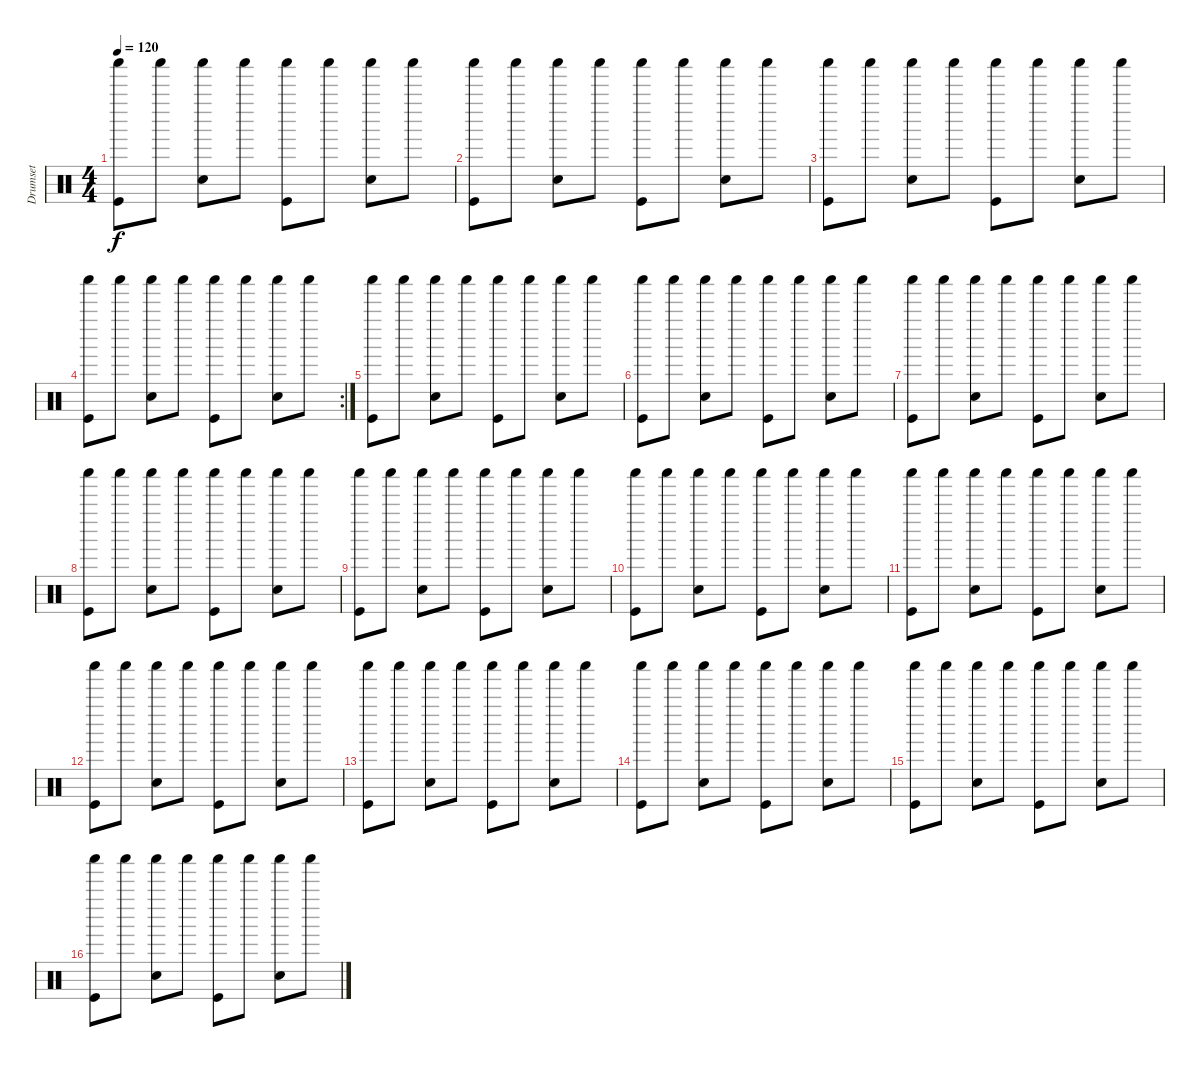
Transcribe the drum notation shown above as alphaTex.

\track ("Drumset" "Drumset") {instrument percussion}
\staff {score}
\articulation defaults
\ts (4 4)
\tempo 120
\clef neutral
\ks c
("Shaker (hit)" "Kick (hit)").8{dy f} "Shaker (hit)".8 ("Shaker (hit)" "Snare (hit) 2").8 "Shaker (hit)".8 ("Shaker (hit)" "Kick (hit)").8 "Shaker (hit)".8 ("Shaker (hit)" "Snare (hit) 2").8 "Shaker (hit)".8 |
("Shaker (hit)" "Kick (hit)").8 "Shaker (hit)".8 ("Shaker (hit)" "Snare (hit) 2").8 "Shaker (hit)".8 ("Shaker (hit)" "Kick (hit)").8 "Shaker (hit)".8 ("Shaker (hit)" "Snare (hit) 2").8 "Shaker (hit)".8 |
("Shaker (hit)" "Kick (hit)").8 "Shaker (hit)".8 ("Shaker (hit)" "Snare (hit) 2").8 "Shaker (hit)".8 ("Shaker (hit)" "Kick (hit)").8 "Shaker (hit)".8 ("Shaker (hit)" "Snare (hit) 2").8 "Shaker (hit)".8 |
\rc 2
("Shaker (hit)" "Kick (hit)").8 "Shaker (hit)".8 ("Shaker (hit)" "Snare (hit) 2").8 "Shaker (hit)".8 ("Shaker (hit)" "Kick (hit)").8 "Shaker (hit)".8 ("Shaker (hit)" "Snare (hit) 2").8 "Shaker (hit)".8 |
("Shaker (hit)" "Kick (hit)").8 "Shaker (hit)".8 ("Shaker (hit)" "Snare (hit) 2").8 "Shaker (hit)".8 ("Shaker (hit)" "Kick (hit)").8 "Shaker (hit)".8 ("Shaker (hit)" "Snare (hit) 2").8 "Shaker (hit)".8 |
("Shaker (hit)" "Kick (hit)").8 "Shaker (hit)".8 ("Shaker (hit)" "Snare (hit) 2").8 "Shaker (hit)".8 ("Shaker (hit)" "Kick (hit)").8 "Shaker (hit)".8 ("Shaker (hit)" "Snare (hit) 2").8 "Shaker (hit)".8 |
("Shaker (hit)" "Kick (hit)").8 "Shaker (hit)".8 ("Shaker (hit)" "Snare (hit) 2").8 "Shaker (hit)".8 ("Shaker (hit)" "Kick (hit)").8 "Shaker (hit)".8 ("Shaker (hit)" "Snare (hit) 2").8 "Shaker (hit)".8 |
("Shaker (hit)" "Kick (hit)").8 "Shaker (hit)".8 ("Shaker (hit)" "Snare (hit) 2").8 "Shaker (hit)".8 ("Shaker (hit)" "Kick (hit)").8 "Shaker (hit)".8 ("Shaker (hit)" "Snare (hit) 2").8 "Shaker (hit)".8 |
("Shaker (hit)" "Kick (hit)").8 "Shaker (hit)".8 ("Shaker (hit)" "Snare (hit) 2").8 "Shaker (hit)".8 ("Shaker (hit)" "Kick (hit)").8 "Shaker (hit)".8 ("Shaker (hit)" "Snare (hit) 2").8 "Shaker (hit)".8 |
("Shaker (hit)" "Kick (hit)").8 "Shaker (hit)".8 ("Shaker (hit)" "Snare (hit) 2").8 "Shaker (hit)".8 ("Shaker (hit)" "Kick (hit)").8 "Shaker (hit)".8 ("Shaker (hit)" "Snare (hit) 2").8 "Shaker (hit)".8 |
("Shaker (hit)" "Kick (hit)").8 "Shaker (hit)".8 ("Shaker (hit)" "Snare (hit) 2").8 "Shaker (hit)".8 ("Shaker (hit)" "Kick (hit)").8 "Shaker (hit)".8 ("Shaker (hit)" "Snare (hit) 2").8 "Shaker (hit)".8 |
("Shaker (hit)" "Kick (hit)").8 "Shaker (hit)".8 ("Shaker (hit)" "Snare (hit) 2").8 "Shaker (hit)".8 ("Shaker (hit)" "Kick (hit)").8 "Shaker (hit)".8 ("Shaker (hit)" "Snare (hit) 2").8 "Shaker (hit)".8 |
("Shaker (hit)" "Kick (hit)").8 "Shaker (hit)".8 ("Shaker (hit)" "Snare (hit) 2").8 "Shaker (hit)".8 ("Shaker (hit)" "Kick (hit)").8 "Shaker (hit)".8 ("Shaker (hit)" "Snare (hit) 2").8 "Shaker (hit)".8 |
("Shaker (hit)" "Kick (hit)").8 "Shaker (hit)".8 ("Shaker (hit)" "Snare (hit) 2").8 "Shaker (hit)".8 ("Shaker (hit)" "Kick (hit)").8 "Shaker (hit)".8 ("Shaker (hit)" "Snare (hit) 2").8 "Shaker (hit)".8 |
("Shaker (hit)" "Kick (hit)").8 "Shaker (hit)".8 ("Shaker (hit)" "Snare (hit) 2").8 "Shaker (hit)".8 ("Shaker (hit)" "Kick (hit)").8 "Shaker (hit)".8 ("Shaker (hit)" "Snare (hit) 2").8 "Shaker (hit)".8 |
("Shaker (hit)" "Kick (hit)").8 "Shaker (hit)".8 ("Shaker (hit)" "Snare (hit) 2").8 "Shaker (hit)".8 ("Shaker (hit)" "Kick (hit)").8 "Shaker (hit)".8 ("Shaker (hit)" "Snare (hit) 2").8 "Shaker (hit)".8
